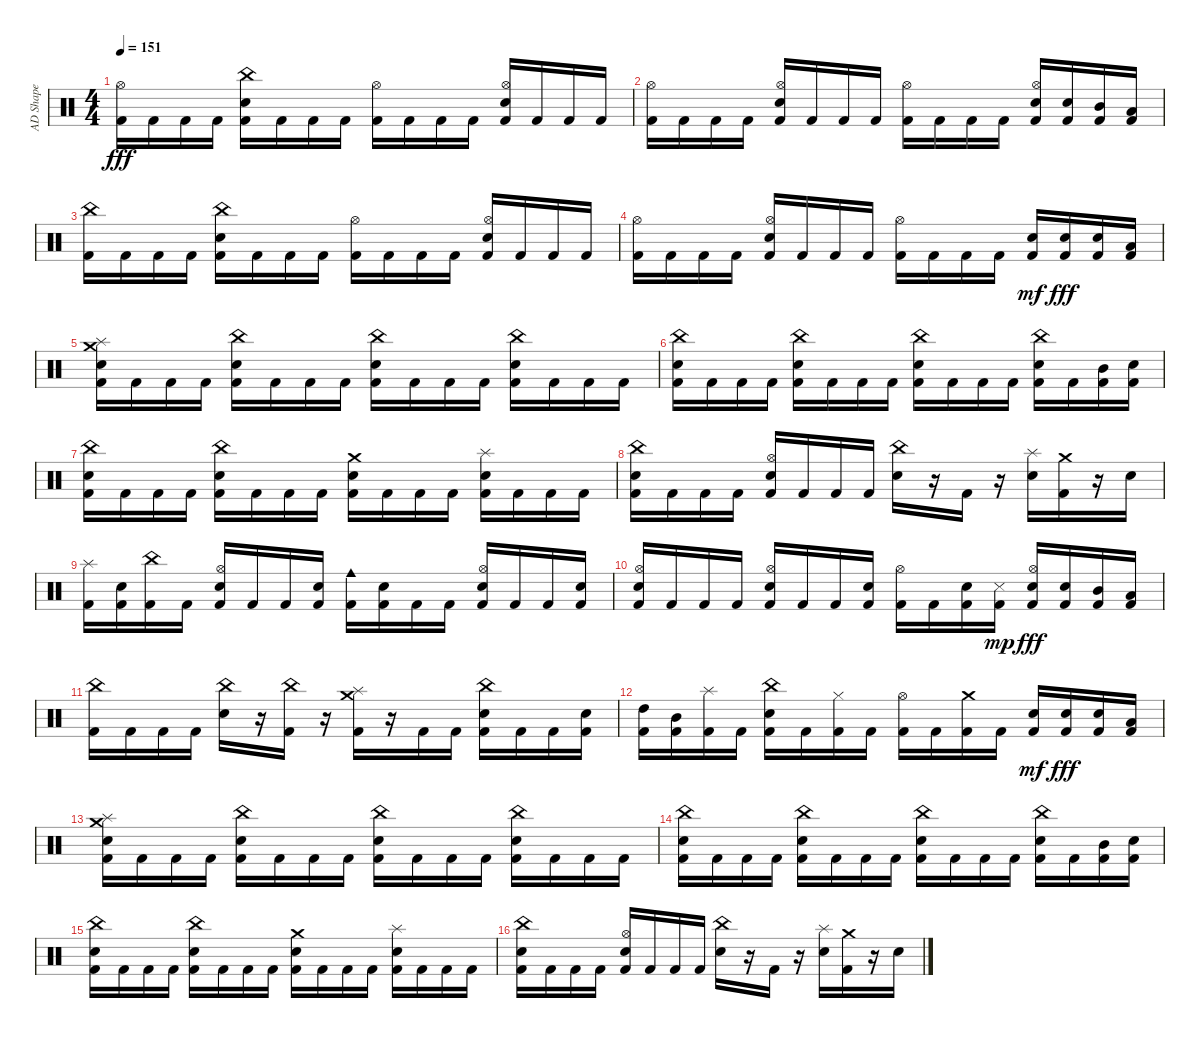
\track ("AD Shape" "AD Shape") {instrument percussion}
\staff {score}
\articulation defaults
\ts (4 4)
\tempo 151
\clef neutral
\ks c
("Kick (hit) 2" "Hi-Hat (open)").16{dy fff} "Kick (hit) 2".16 "Kick (hit) 2".16 "Kick (hit) 2".16 ("Kick (hit) 2" "Snare (hit) 2" "China (hit)").16 "Kick (hit) 2".16 "Kick (hit) 2".16 "Kick (hit) 2".16 ("Kick (hit) 2" "Hi-Hat (open)").16 "Kick (hit) 2".16 "Kick (hit) 2".16 "Kick (hit) 2".16 ("Kick (hit) 2" "Snare (hit) 2" "Hi-Hat (open)").16 "Kick (hit) 2".16 "Kick (hit) 2".16 "Kick (hit) 2".16 |
("Kick (hit) 2" "Hi-Hat (open)").16 "Kick (hit) 2".16 "Kick (hit) 2".16 "Kick (hit) 2".16 ("Kick (hit) 2" "Snare (hit) 2" "Hi-Hat (open)").16 "Kick (hit) 2".16 "Kick (hit) 2".16 "Kick (hit) 2".16 ("Kick (hit) 2" "Hi-Hat (open)").16 "Kick (hit) 2".16 "Kick (hit) 2".16 "Kick (hit) 2".16 ("Kick (hit) 2" "Snare (hit) 2" "Hi-Hat (open)").16 ("Kick (hit) 2" "Snare (hit) 2").16 ("Kick (hit) 2" "Mid Tom (hit)").16 ("Kick (hit) 2" "Low Tom (hit)").16 |
("Kick (hit) 2" "China (hit)").16 "Kick (hit) 2".16 "Kick (hit) 2".16 "Kick (hit) 2".16 ("Kick (hit) 2" "Snare (hit) 2" "China (hit)").16 "Kick (hit) 2".16 "Kick (hit) 2".16 "Kick (hit) 2".16 ("Kick (hit) 2" "Hi-Hat (open)").16 "Kick (hit) 2".16 "Kick (hit) 2".16 "Kick (hit) 2".16 ("Kick (hit) 2" "Snare (hit) 2" "Hi-Hat (open)").16 "Kick (hit) 2".16 "Kick (hit) 2".16 "Kick (hit) 2".16 |
("Kick (hit) 2" "Hi-Hat (open)").16 "Kick (hit) 2".16 "Kick (hit) 2".16 "Kick (hit) 2".16 ("Kick (hit) 2" "Snare (hit) 2" "Hi-Hat (open)").16 "Kick (hit) 2".16 "Kick (hit) 2".16 "Kick (hit) 2".16 ("Kick (hit) 2" "Hi-Hat (open)").16 "Kick (hit) 2".16 "Kick (hit) 2".16 "Kick (hit) 2".16 ("Kick (hit) 2" "Snare (hit) 2").16{dy mf} ("Kick (hit) 2" "Snare (hit) 2").16{dy fff} ("Kick (hit) 2" "Snare (hit) 2").16 ("Kick (hit) 2" "Low Tom (hit)").16 |
("Kick (hit) 2" "Snare (hit) 2" "Splash (hit)" "Crash medium (hit)").16 "Kick (hit) 2".16 "Kick (hit) 2".16 "Kick (hit) 2".16 ("Kick (hit) 2" "Snare (hit) 2" "China (hit)").16 "Kick (hit) 2".16 "Kick (hit) 2".16 "Kick (hit) 2".16 ("Kick (hit) 2" "Snare (hit) 2" "China (hit)").16 "Kick (hit) 2".16 "Kick (hit) 2".16 "Kick (hit) 2".16 ("Kick (hit) 2" "Snare (hit) 2" "China (hit)").16 "Kick (hit) 2".16 "Kick (hit) 2".16 "Kick (hit) 2".16 |
("Kick (hit) 2" "Snare (hit) 2" "China (hit)").16 "Kick (hit) 2".16 "Kick (hit) 2".16 "Kick (hit) 2".16 ("Kick (hit) 2" "Snare (hit) 2" "China (hit)").16 "Kick (hit) 2".16 "Kick (hit) 2".16 "Kick (hit) 2".16 ("Kick (hit) 2" "Snare (hit) 2" "China (hit)").16 "Kick (hit) 2".16 "Kick (hit) 2".16 "Kick (hit) 2".16 ("Kick (hit) 2" "Snare (hit) 2" "China (hit)").16 "Kick (hit) 2".16 ("Kick (hit) 2" "Mid Tom (hit)").16 ("Kick (hit) 2" "Snare (hit) 2").16 |
("Kick (hit) 2" "Snare (hit) 2" "China (hit)").16 "Kick (hit) 2".16 "Kick (hit) 2".16 "Kick (hit) 2".16 ("Kick (hit) 2" "Snare (hit) 2" "China (hit)").16 "Kick (hit) 2".16 "Kick (hit) 2".16 "Kick (hit) 2".16 ("Kick (hit) 2" "Snare (hit) 2" "Crash medium (hit)").16 "Kick (hit) 2".16 "Kick (hit) 2".16 "Kick (hit) 2".16 ("Kick (hit) 2" "Snare (hit) 2" "Splash (hit)").16 "Kick (hit) 2".16 "Kick (hit) 2".16 "Kick (hit) 2".16 |
("Kick (hit) 2" "Snare (hit) 2" "China (hit)").16 "Kick (hit) 2".16 "Kick (hit) 2".16 "Kick (hit) 2".16 ("Kick (hit) 2" "Snare (hit) 2" "Hi-Hat (open)").16 "Kick (hit) 2".16 "Kick (hit) 2".16 "Kick (hit) 2".16 ("Snare (hit) 2" "China (hit)").16 r.16 "Kick (hit) 2".16 r.16 ("Snare (hit) 2" "Splash (hit)").16 ("Kick (hit) 2" "Crash medium (hit)").16 r.16 "Snare (hit) 2".16 |
("Kick (hit) 2" "Splash (hit)").16 ("Kick (hit) 2" "Snare (hit) 2").16 ("Kick (hit) 2" "China (hit)").16 "Kick (hit) 2".16 ("Kick (hit) 2" "Snare (hit) 2" "Hi-Hat (open)").16 "Kick (hit) 2".16 "Kick (hit) 2".16 ("Kick (hit) 2" "Snare (hit) 2").16 ("Kick (hit) 2" "Cowbell medium (hit)").16 ("Kick (hit) 2" "Snare (hit) 2").16 "Kick (hit) 2".16 "Kick (hit) 2".16 ("Kick (hit) 2" "Snare (hit) 2" "Hi-Hat (open)").16 "Kick (hit) 2".16 "Kick (hit) 2".16 ("Kick (hit) 2" "Snare (hit) 2").16 |
("Kick (hit) 2" "Snare (hit) 2" "Hi-Hat (open)").16 "Kick (hit) 2".16 "Kick (hit) 2".16 "Kick (hit) 2".16 ("Kick (hit) 2" "Snare (hit) 2" "Hi-Hat (open)").16 "Kick (hit) 2".16 "Kick (hit) 2".16 ("Kick (hit) 2" "Snare (hit) 2").16 ("Kick (hit) 2" "Hi-Hat (open)").16 "Kick (hit) 2".16 ("Kick (hit) 2" "Snare (hit) 2").16 ("Kick (hit) 2" "Snare (side stick) 3").16{dy mp} ("Kick (hit) 2" "Snare (hit) 2" "Hi-Hat (open)").16{dy fff} ("Kick (hit) 2" "Snare (hit) 2").16 ("Kick (hit) 2" "Mid Tom (hit)").16 ("Kick (hit) 2" "Low Tom (hit)").16 |
("Kick (hit) 2" "China (hit)").16 "Kick (hit) 2".16 "Kick (hit) 2".16 "Kick (hit) 2".16 ("Snare (hit) 2" "China (hit)").16 r.16 ("Kick (hit) 2" "China (hit)").16 r.16 ("Kick (hit) 2" "Splash (hit)" "Crash medium (hit)").16 r.16 "Kick (hit) 2".16 "Kick (hit) 2".16 ("Kick (hit) 2" "Snare (hit) 2" "China (hit)").16 "Kick (hit) 2".16 "Kick (hit) 2".16 ("Kick (hit) 2" "Snare (hit) 2").16 |
("Kick (hit) 2" "High Tom (hit)").16 ("Kick (hit) 2" "Mid Tom (hit)").16 ("Kick (hit) 2" "Splash (hit)").16 "Kick (hit) 2".16 ("Kick (hit) 2" "Snare (hit) 2" "China (hit)").16 "Kick (hit) 2".16 ("Kick (hit) 2" "Hi-Hat (closed)").16 "Kick (hit) 2".16 ("Kick (hit) 2" "Hi-Hat (open)").16 "Kick (hit) 2".16 ("Kick (hit) 2" "Crash medium (hit)").16 "Kick (hit) 2".16 ("Kick (hit) 2" "Snare (hit) 2").16{dy mf} ("Kick (hit) 2" "Snare (hit) 2").16{dy fff} ("Kick (hit) 2" "Snare (hit) 2").16 ("Kick (hit) 2" "Low Tom (hit)").16 |
("Kick (hit) 2" "Snare (hit) 2" "Splash (hit)" "Crash medium (hit)").16 "Kick (hit) 2".16 "Kick (hit) 2".16 "Kick (hit) 2".16 ("Kick (hit) 2" "Snare (hit) 2" "China (hit)").16 "Kick (hit) 2".16 "Kick (hit) 2".16 "Kick (hit) 2".16 ("Kick (hit) 2" "Snare (hit) 2" "China (hit)").16 "Kick (hit) 2".16 "Kick (hit) 2".16 "Kick (hit) 2".16 ("Kick (hit) 2" "Snare (hit) 2" "China (hit)").16 "Kick (hit) 2".16 "Kick (hit) 2".16 "Kick (hit) 2".16 |
("Kick (hit) 2" "Snare (hit) 2" "China (hit)").16 "Kick (hit) 2".16 "Kick (hit) 2".16 "Kick (hit) 2".16 ("Kick (hit) 2" "Snare (hit) 2" "China (hit)").16 "Kick (hit) 2".16 "Kick (hit) 2".16 "Kick (hit) 2".16 ("Kick (hit) 2" "Snare (hit) 2" "China (hit)").16 "Kick (hit) 2".16 "Kick (hit) 2".16 "Kick (hit) 2".16 ("Kick (hit) 2" "Snare (hit) 2" "China (hit)").16 "Kick (hit) 2".16 ("Kick (hit) 2" "Mid Tom (hit)").16 ("Kick (hit) 2" "Snare (hit) 2").16 |
("Kick (hit) 2" "Snare (hit) 2" "China (hit)").16 "Kick (hit) 2".16 "Kick (hit) 2".16 "Kick (hit) 2".16 ("Kick (hit) 2" "Snare (hit) 2" "China (hit)").16 "Kick (hit) 2".16 "Kick (hit) 2".16 "Kick (hit) 2".16 ("Kick (hit) 2" "Snare (hit) 2" "Crash medium (hit)").16 "Kick (hit) 2".16 "Kick (hit) 2".16 "Kick (hit) 2".16 ("Kick (hit) 2" "Snare (hit) 2" "Splash (hit)").16 "Kick (hit) 2".16 "Kick (hit) 2".16 "Kick (hit) 2".16 |
("Kick (hit) 2" "Snare (hit) 2" "China (hit)").16 "Kick (hit) 2".16 "Kick (hit) 2".16 "Kick (hit) 2".16 ("Kick (hit) 2" "Snare (hit) 2" "Hi-Hat (open)").16 "Kick (hit) 2".16 "Kick (hit) 2".16 "Kick (hit) 2".16 ("Snare (hit) 2" "China (hit)").16 r.16 "Kick (hit) 2".16 r.16 ("Snare (hit) 2" "Splash (hit)").16 ("Kick (hit) 2" "Crash medium (hit)").16 r.16 "Snare (hit) 2".16
